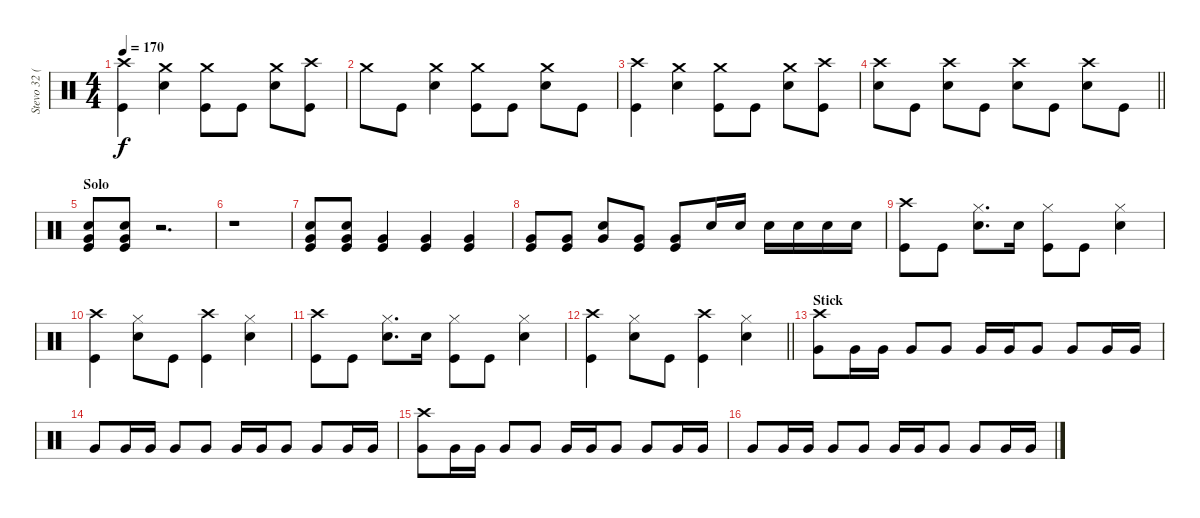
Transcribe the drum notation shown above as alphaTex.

\track ("Stevo 32 (Drums)" "Stevo 32 (") {instrument percussion}
\staff {score}
\articulation defaults
\ts (4 4)
\tempo 170
\clef neutral
\ks c
("Crash high (hit)" "Kick (hit)").4{dy f} ("Crash medium (hit)" "Electric Snare (hit)").4 ("Crash medium (hit)" "Kick (hit)").8 "Kick (hit)".8 ("Crash medium (hit)" "Electric Snare (hit)").8 ("Crash high (hit)" "Kick (hit)").8 |
"Crash medium (hit)".8 "Kick (hit)".8 ("Crash medium (hit)" "Electric Snare (hit)").4 ("Crash medium (hit)" "Kick (hit)").8 "Kick (hit)".8 ("Crash medium (hit)" "Electric Snare (hit)").8 "Kick (hit)".8 |
("Crash high (hit)" "Kick (hit)").4 ("Crash medium (hit)" "Electric Snare (hit)").4 ("Crash medium (hit)" "Kick (hit)").8 "Kick (hit)".8 ("Crash medium (hit)" "Electric Snare (hit)").8 ("Crash high (hit)" "Kick (hit)").8 |
\barLineRight lightlight
("Crash high (hit)" "Electric Snare (hit)").8 "Kick (hit)".8 ("Crash high (hit)" "Electric Snare (hit)").8 "Kick (hit)".8 ("Crash high (hit)" "Electric Snare (hit)").8 "Kick (hit)".8 ("Crash high (hit)" "Electric Snare (hit)").8 "Kick (hit)".8 |
\section ("" "Solo")
("Very Low Tom (hit)" "Kick (hit)" "Electric Snare (hit)").8 ("Very Low Tom (hit)" "Kick (hit)" "Electric Snare (hit)").8 r.2{d} |
r.1 |
("Very Low Tom (hit)" "Kick (hit)" "Electric Snare (hit)").8 ("Very Low Tom (hit)" "Kick (hit)" "Electric Snare (hit)").8 ("Very Low Tom (hit)" "Kick (hit)").4 ("Very Low Tom (hit)" "Kick (hit)").4 ("Very Low Tom (hit)" "Kick (hit)").4 |
("Very Low Tom (hit)" "Kick (hit)").8 ("Very Low Tom (hit)" "Kick (hit)").8 ("Very Low Tom (hit)" "Electric Snare (hit)").8 ("Very Low Tom (hit)" "Kick (hit)").8 ("Very Low Tom (hit)" "Kick (hit)").8 "Electric Snare (hit)".16 "Electric Snare (hit)".16 "Electric Snare (hit)".16 "Electric Snare (hit)".16 "Electric Snare (hit)".16 "Electric Snare (hit)".16 |
("Crash high (hit)" "Kick (hit)").8 "Kick (hit)".8 ("Hi-Hat (closed)" "Electric Snare (hit)").8{d} "Electric Snare (hit)".16 ("Hi-Hat (closed)" "Kick (hit)").8 "Kick (hit)".8 ("Hi-Hat (closed)" "Electric Snare (hit)").4 |
("Crash high (hit)" "Kick (hit)").4 ("Hi-Hat (closed)" "Electric Snare (hit)").8 "Kick (hit)".8 ("Crash high (hit)" "Kick (hit)").4 ("Hi-Hat (closed)" "Electric Snare (hit)").4 |
("Crash high (hit)" "Kick (hit)").8 "Kick (hit)".8 ("Hi-Hat (closed)" "Electric Snare (hit)").8{d} "Electric Snare (hit)".16 ("Hi-Hat (closed)" "Kick (hit)").8 "Kick (hit)".8 ("Hi-Hat (closed)" "Electric Snare (hit)").4 |
\barLineRight lightlight
("Crash high (hit)" "Kick (hit)").4 ("Hi-Hat (closed)" "Electric Snare (hit)").8 "Kick (hit)".8 ("Crash high (hit)" "Kick (hit)").4 ("Hi-Hat (closed)" "Electric Snare (hit)").4 |
\section ("" "Stick")
("Crash high (hit)" "Very Low Tom (hit)").8 "Very Low Tom (hit)".16 "Very Low Tom (hit)".16 "Very Low Tom (hit)".8 "Very Low Tom (hit)".8 "Very Low Tom (hit)".16 "Very Low Tom (hit)".16 "Very Low Tom (hit)".8 "Very Low Tom (hit)".8 "Very Low Tom (hit)".16 "Very Low Tom (hit)".16 |
"Very Low Tom (hit)".8 "Very Low Tom (hit)".16 "Very Low Tom (hit)".16 "Very Low Tom (hit)".8 "Very Low Tom (hit)".8 "Very Low Tom (hit)".16 "Very Low Tom (hit)".16 "Very Low Tom (hit)".8 "Very Low Tom (hit)".8 "Very Low Tom (hit)".16 "Very Low Tom (hit)".16 |
("Crash high (hit)" "Very Low Tom (hit)").8 "Very Low Tom (hit)".16 "Very Low Tom (hit)".16 "Very Low Tom (hit)".8 "Very Low Tom (hit)".8 "Very Low Tom (hit)".16 "Very Low Tom (hit)".16 "Very Low Tom (hit)".8 "Very Low Tom (hit)".8 "Very Low Tom (hit)".16 "Very Low Tom (hit)".16 |
"Very Low Tom (hit)".8 "Very Low Tom (hit)".16 "Very Low Tom (hit)".16 "Very Low Tom (hit)".8 "Very Low Tom (hit)".8 "Very Low Tom (hit)".16 "Very Low Tom (hit)".16 "Very Low Tom (hit)".8 "Very Low Tom (hit)".8 "Very Low Tom (hit)".16 "Very Low Tom (hit)".16
